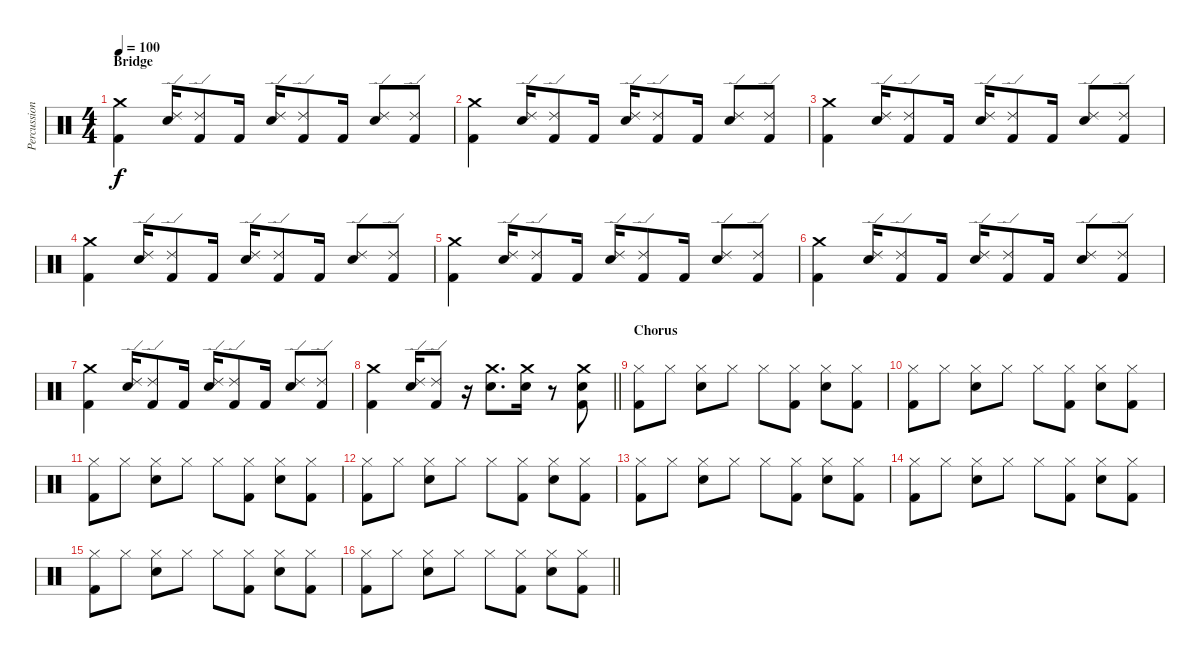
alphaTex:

\track ("Percussion" "Percussion") {instrument percussion}
\staff {score}
\articulation defaults
\ts (4 4)
\section ("" "Bridge")
\tempo 100
\clef neutral
\ks c
("Crash medium (hit)" "Kick (hit) 2").4{dy f} ("Ride (edge) 2" "Snare (hit) 2").16 ("Ride (edge) 2" "Kick (hit) 2").8 "Kick (hit) 2".16 ("Ride (edge) 2" "Snare (hit) 2").16 ("Ride (edge) 2" "Kick (hit) 2").8 "Kick (hit) 2".16 ("Ride (edge) 2" "Snare (hit) 2").8 ("Ride (edge) 2" "Kick (hit) 2").8 |
("Crash medium (hit)" "Kick (hit) 2").4 ("Ride (edge) 2" "Snare (hit) 2").16 ("Ride (edge) 2" "Kick (hit) 2").8 "Kick (hit) 2".16 ("Ride (edge) 2" "Snare (hit) 2").16 ("Ride (edge) 2" "Kick (hit) 2").8 "Kick (hit) 2".16 ("Ride (edge) 2" "Snare (hit) 2").8 ("Ride (edge) 2" "Kick (hit) 2").8 |
("Crash medium (hit)" "Kick (hit) 2").4 ("Ride (edge) 2" "Snare (hit) 2").16 ("Ride (edge) 2" "Kick (hit) 2").8 "Kick (hit) 2".16 ("Ride (edge) 2" "Snare (hit) 2").16 ("Ride (edge) 2" "Kick (hit) 2").8 "Kick (hit) 2".16 ("Ride (edge) 2" "Snare (hit) 2").8 ("Ride (edge) 2" "Kick (hit) 2").8 |
("Crash medium (hit)" "Kick (hit) 2").4 ("Ride (edge) 2" "Snare (hit) 2").16 ("Ride (edge) 2" "Kick (hit) 2").8 "Kick (hit) 2".16 ("Ride (edge) 2" "Snare (hit) 2").16 ("Ride (edge) 2" "Kick (hit) 2").8 "Kick (hit) 2".16 ("Ride (edge) 2" "Snare (hit) 2").8 ("Ride (edge) 2" "Kick (hit) 2").8 |
("Crash medium (hit)" "Kick (hit) 2").4 ("Ride (edge) 2" "Snare (hit) 2").16 ("Ride (edge) 2" "Kick (hit) 2").8 "Kick (hit) 2".16 ("Ride (edge) 2" "Snare (hit) 2").16 ("Ride (edge) 2" "Kick (hit) 2").8 "Kick (hit) 2".16 ("Ride (edge) 2" "Snare (hit) 2").8 ("Ride (edge) 2" "Kick (hit) 2").8 |
("Crash medium (hit)" "Kick (hit) 2").4 ("Ride (edge) 2" "Snare (hit) 2").16 ("Ride (edge) 2" "Kick (hit) 2").8 "Kick (hit) 2".16 ("Ride (edge) 2" "Snare (hit) 2").16 ("Ride (edge) 2" "Kick (hit) 2").8 "Kick (hit) 2".16 ("Ride (edge) 2" "Snare (hit) 2").8 ("Ride (edge) 2" "Kick (hit) 2").8 |
("Crash medium (hit)" "Kick (hit) 2").4 ("Ride (edge) 2" "Snare (hit) 2").16 ("Ride (edge) 2" "Kick (hit) 2").8 "Kick (hit) 2".16 ("Ride (edge) 2" "Snare (hit) 2").16 ("Ride (edge) 2" "Kick (hit) 2").8 "Kick (hit) 2".16 ("Ride (edge) 2" "Snare (hit) 2").8 ("Ride (edge) 2" "Kick (hit) 2").8 |
\barLineRight lightlight
("Crash medium (hit)" "Kick (hit) 2").4 ("Ride (edge) 2" "Snare (hit) 2").16 ("Ride (edge) 2" "Kick (hit) 2").8 r.16 ("Crash medium (hit)" "Snare (hit) 2").8{d} ("Crash medium (hit)" "Snare (hit) 2").16 r.8 ("Crash medium (hit)" "Snare (hit) 2" "Kick (hit) 2").8 |
\section ("" "Chorus")
("Hi-Hat (closed)" "Kick (hit) 2").8 "Hi-Hat (closed)".8 ("Hi-Hat (closed)" "Snare (hit) 2").8 "Hi-Hat (closed)".8 "Hi-Hat (closed)".8 ("Hi-Hat (closed)" "Kick (hit) 2").8 ("Hi-Hat (closed)" "Snare (hit) 2").8 ("Hi-Hat (closed)" "Kick (hit) 2").8 |
("Hi-Hat (closed)" "Kick (hit) 2").8 "Hi-Hat (closed)".8 ("Hi-Hat (closed)" "Snare (hit) 2").8 "Hi-Hat (closed)".8 "Hi-Hat (closed)".8 ("Hi-Hat (closed)" "Kick (hit) 2").8 ("Hi-Hat (closed)" "Snare (hit) 2").8 ("Hi-Hat (closed)" "Kick (hit) 2").8 |
("Hi-Hat (closed)" "Kick (hit) 2").8 "Hi-Hat (closed)".8 ("Hi-Hat (closed)" "Snare (hit) 2").8 "Hi-Hat (closed)".8 "Hi-Hat (closed)".8 ("Hi-Hat (closed)" "Kick (hit) 2").8 ("Hi-Hat (closed)" "Snare (hit) 2").8 ("Hi-Hat (closed)" "Kick (hit) 2").8 |
("Hi-Hat (closed)" "Kick (hit) 2").8 "Hi-Hat (closed)".8 ("Hi-Hat (closed)" "Snare (hit) 2").8 "Hi-Hat (closed)".8 "Hi-Hat (closed)".8 ("Hi-Hat (closed)" "Kick (hit) 2").8 ("Hi-Hat (closed)" "Snare (hit) 2").8 ("Hi-Hat (closed)" "Kick (hit) 2").8 |
("Hi-Hat (closed)" "Kick (hit) 2").8 "Hi-Hat (closed)".8 ("Hi-Hat (closed)" "Snare (hit) 2").8 "Hi-Hat (closed)".8 "Hi-Hat (closed)".8 ("Hi-Hat (closed)" "Kick (hit) 2").8 ("Hi-Hat (closed)" "Snare (hit) 2").8 ("Hi-Hat (closed)" "Kick (hit) 2").8 |
("Hi-Hat (closed)" "Kick (hit) 2").8 "Hi-Hat (closed)".8 ("Hi-Hat (closed)" "Snare (hit) 2").8 "Hi-Hat (closed)".8 "Hi-Hat (closed)".8 ("Hi-Hat (closed)" "Kick (hit) 2").8 ("Hi-Hat (closed)" "Snare (hit) 2").8 ("Hi-Hat (closed)" "Kick (hit) 2").8 |
("Hi-Hat (closed)" "Kick (hit) 2").8 "Hi-Hat (closed)".8 ("Hi-Hat (closed)" "Snare (hit) 2").8 "Hi-Hat (closed)".8 "Hi-Hat (closed)".8 ("Hi-Hat (closed)" "Kick (hit) 2").8 ("Hi-Hat (closed)" "Snare (hit) 2").8 ("Hi-Hat (closed)" "Kick (hit) 2").8 |
\barLineRight lightlight
("Hi-Hat (closed)" "Kick (hit) 2").8 "Hi-Hat (closed)".8 ("Hi-Hat (closed)" "Snare (hit) 2").8 "Hi-Hat (closed)".8 "Hi-Hat (closed)".8 ("Hi-Hat (closed)" "Kick (hit) 2").8 ("Hi-Hat (closed)" "Snare (hit) 2").8 ("Hi-Hat (closed)" "Kick (hit) 2").8
